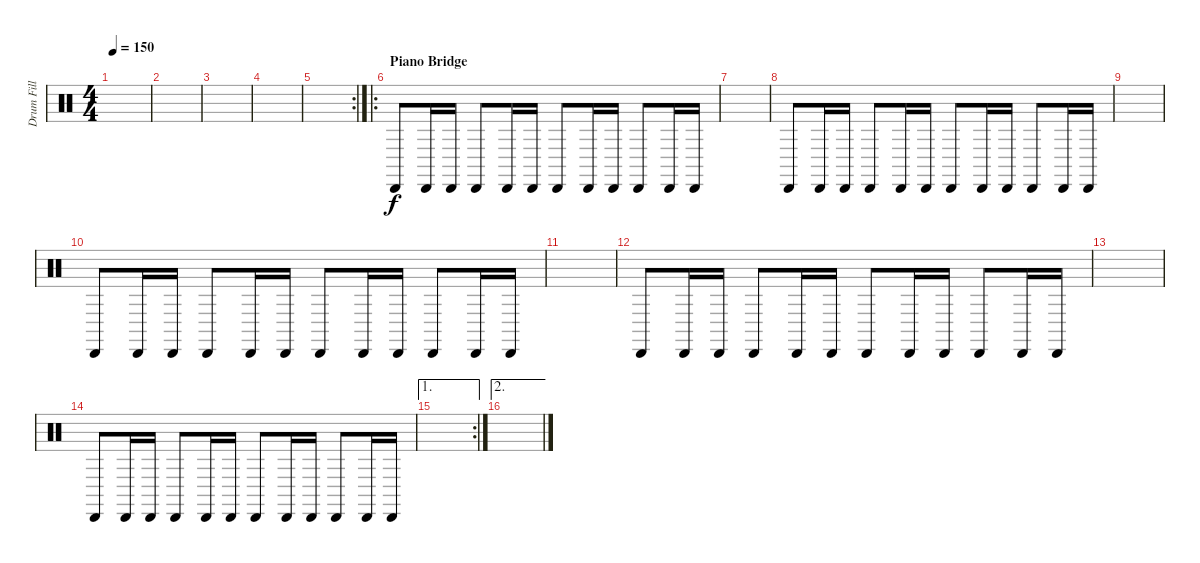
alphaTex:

\track ("Drum Fill" "Drum Fill") {instrument percussion}
\staff {score}
\articulation defaults
\ts (4 4)
\tempo 150
\clef neutral
\ks c
|
|
|
|
\rc 2
|
\ro
\section ("" "Piano Bridge")
"Cabasa (hit)".8 "Cabasa (hit)".16 "Cabasa (hit)".16 "Cabasa (hit)".8 "Cabasa (hit)".16 "Cabasa (hit)".16 "Cabasa (hit)".8 "Cabasa (hit)".16 "Cabasa (hit)".16 "Cabasa (hit)".8 "Cabasa (hit)".16 "Cabasa (hit)".16 |
|
"Cabasa (hit)".8 "Cabasa (hit)".16 "Cabasa (hit)".16 "Cabasa (hit)".8 "Cabasa (hit)".16 "Cabasa (hit)".16 "Cabasa (hit)".8 "Cabasa (hit)".16 "Cabasa (hit)".16 "Cabasa (hit)".8 "Cabasa (hit)".16 "Cabasa (hit)".16 |
|
"Cabasa (hit)".8 "Cabasa (hit)".16 "Cabasa (hit)".16 "Cabasa (hit)".8 "Cabasa (hit)".16 "Cabasa (hit)".16 "Cabasa (hit)".8 "Cabasa (hit)".16 "Cabasa (hit)".16 "Cabasa (hit)".8 "Cabasa (hit)".16 "Cabasa (hit)".16 |
|
"Cabasa (hit)".8 "Cabasa (hit)".16 "Cabasa (hit)".16 "Cabasa (hit)".8 "Cabasa (hit)".16 "Cabasa (hit)".16 "Cabasa (hit)".8 "Cabasa (hit)".16 "Cabasa (hit)".16 "Cabasa (hit)".8 "Cabasa (hit)".16 "Cabasa (hit)".16 |
|
"Cabasa (hit)".8 "Cabasa (hit)".16 "Cabasa (hit)".16 "Cabasa (hit)".8 "Cabasa (hit)".16 "Cabasa (hit)".16 "Cabasa (hit)".8 "Cabasa (hit)".16 "Cabasa (hit)".16 "Cabasa (hit)".8 "Cabasa (hit)".16 "Cabasa (hit)".16 |
\ae 1
\rc 2
|
\ae 2
